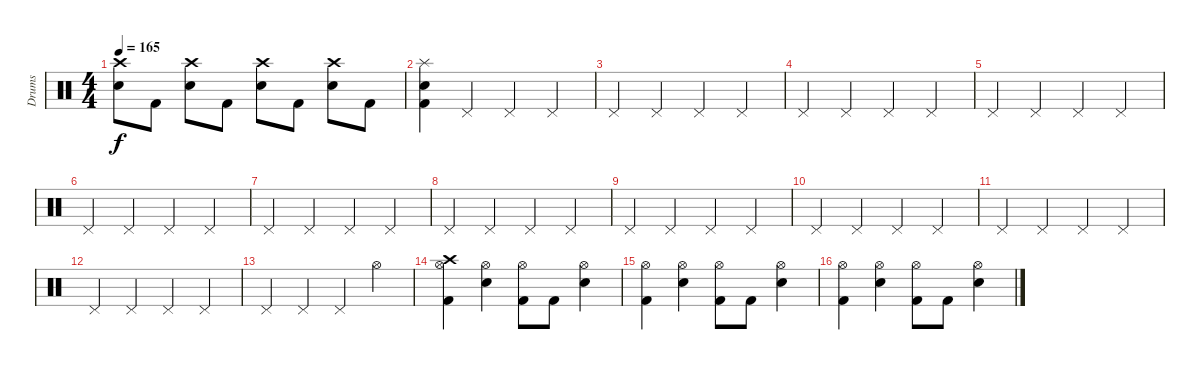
\track ("Drums" "Drums") {instrument percussion}
\staff {score}
\articulation defaults
\ts (4 4)
\tempo 165
\clef neutral
\ks c
("Crash high (hit)" "Snare (hit) 2").8{dy f} "Kick (hit) 2".8 ("Crash high (hit)" "Snare (hit) 2").8 "Kick (hit) 2".8 ("Crash high (hit)" "Snare (hit) 2").8 "Kick (hit) 2".8 ("Crash high (hit)" "Snare (hit) 2").8 "Kick (hit) 2".8 |
("Splash (hit)" "Snare (hit) 2" "Kick (hit) 2").4 "Pedal Hi-Hat (hit)".4 "Pedal Hi-Hat (hit)".4 "Pedal Hi-Hat (hit)".4 |
"Pedal Hi-Hat (hit)".4 "Pedal Hi-Hat (hit)".4 "Pedal Hi-Hat (hit)".4 "Pedal Hi-Hat (hit)".4 |
"Pedal Hi-Hat (hit)".4 "Pedal Hi-Hat (hit)".4 "Pedal Hi-Hat (hit)".4 "Pedal Hi-Hat (hit)".4 |
"Pedal Hi-Hat (hit)".4 "Pedal Hi-Hat (hit)".4 "Pedal Hi-Hat (hit)".4 "Pedal Hi-Hat (hit)".4 |
"Pedal Hi-Hat (hit)".4 "Pedal Hi-Hat (hit)".4 "Pedal Hi-Hat (hit)".4 "Pedal Hi-Hat (hit)".4 |
"Pedal Hi-Hat (hit)".4 "Pedal Hi-Hat (hit)".4 "Pedal Hi-Hat (hit)".4 "Pedal Hi-Hat (hit)".4 |
"Pedal Hi-Hat (hit)".4 "Pedal Hi-Hat (hit)".4 "Pedal Hi-Hat (hit)".4 "Pedal Hi-Hat (hit)".4 |
"Pedal Hi-Hat (hit)".4 "Pedal Hi-Hat (hit)".4 "Pedal Hi-Hat (hit)".4 "Pedal Hi-Hat (hit)".4 |
"Pedal Hi-Hat (hit)".4 "Pedal Hi-Hat (hit)".4 "Pedal Hi-Hat (hit)".4 "Pedal Hi-Hat (hit)".4 |
"Pedal Hi-Hat (hit)".4 "Pedal Hi-Hat (hit)".4 "Pedal Hi-Hat (hit)".4 "Pedal Hi-Hat (hit)".4 |
"Pedal Hi-Hat (hit)".4 "Pedal Hi-Hat (hit)".4 "Pedal Hi-Hat (hit)".4 "Pedal Hi-Hat (hit)".4 |
"Pedal Hi-Hat (hit)".4 "Pedal Hi-Hat (hit)".4 "Pedal Hi-Hat (hit)".4 "Hi-Hat (open)".4 |
("Kick (hit) 2" "Hi-Hat (open)" "Crash high (hit)").4 ("Hi-Hat (open)" "Snare (hit) 2").4 ("Hi-Hat (open)" "Kick (hit) 2").8 "Kick (hit) 2".8 ("Hi-Hat (open)" "Snare (hit) 2").4 |
("Kick (hit) 2" "Hi-Hat (open)").4 ("Hi-Hat (open)" "Snare (hit) 2").4 ("Hi-Hat (open)" "Kick (hit) 2").8 "Kick (hit) 2".8 ("Hi-Hat (open)" "Snare (hit) 2").4 |
("Kick (hit) 2" "Hi-Hat (open)").4 ("Hi-Hat (open)" "Snare (hit) 2").4 ("Hi-Hat (open)" "Kick (hit) 2").8 "Kick (hit) 2".8 ("Hi-Hat (open)" "Snare (hit) 2").4
